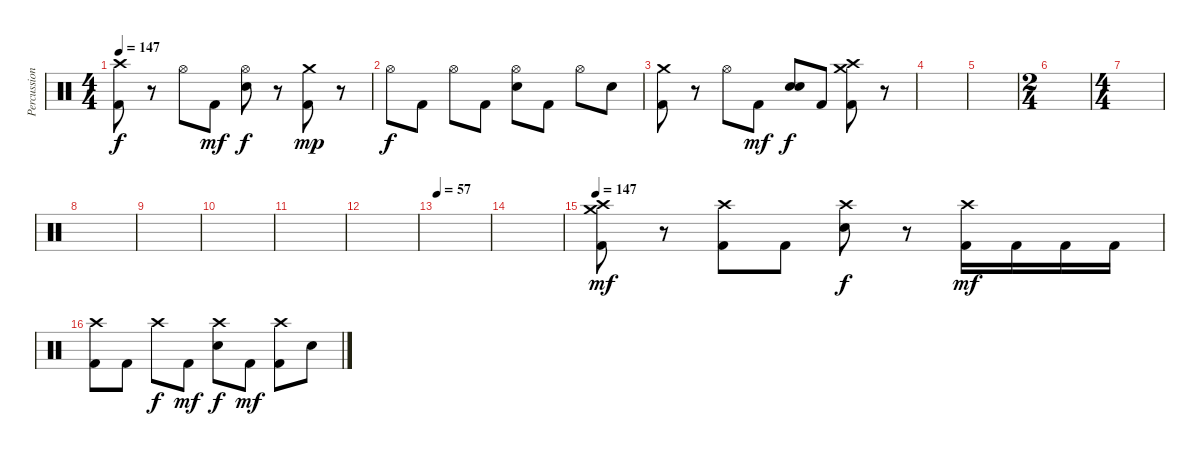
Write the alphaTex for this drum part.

\track ("Percussion" "Percussion") {instrument percussion}
\staff {score}
\articulation defaults
\ts (4 4)
\tempo 147
\clef neutral
\ks c
("Kick (hit) 2" "Crash high (hit)").8{dy f} r.8 "Hi-Hat (open)".8 "Kick (hit) 2".8{dy mf} ("Electric Snare (hit)" "Hi-Hat (open)").8{dy f} r.8 ("Kick (hit) 2" "Crash medium (hit)").8{dy mp} r.8 |
"Hi-Hat (open)".8{dy f} "Kick (hit) 2".8 "Hi-Hat (open)".8 "Kick (hit) 2".8 ("Electric Snare (hit)" "Hi-Hat (open)").8 "Kick (hit) 2".8 "Hi-Hat (open)".8 "Electric Snare (hit)".8 |
("Kick (hit) 2" "Crash medium (hit)").8 r.8 "Hi-Hat (open)".8 "Kick (hit) 2".8{dy mf} ("Electric Snare (hit)" "Electric Snare (hit)").8{dy f} "Kick (hit) 2".8 ("Kick (hit) 2" "Crash medium (hit)" "Crash high (hit)").8 r.8 |
|
|
\ts (2 4)
|
\ts (4 4)
|
|
|
|
|
|
\tempo 57
|
|
\tempo 147
("Kick (hit) 2" "Crash medium (hit)" "Crash high (hit)").8{dy mf} r.8 ("Kick (hit) 2" "Crash high (hit)").8 "Kick (hit) 2".8 ("Electric Snare (hit)" "Crash high (hit)").8{dy f} r.8 ("Kick (hit) 2" "Crash high (hit)").16{dy mf} "Kick (hit) 2".16 "Kick (hit) 2".16 "Kick (hit) 2".16 |
("Kick (hit) 2" "Crash high (hit)").8 "Kick (hit) 2".8 "Crash high (hit)".8{dy f} "Kick (hit) 2".8{dy mf} ("Electric Snare (hit)" "Crash high (hit)").8{dy f} "Kick (hit) 2".8{dy mf} ("Kick (hit) 2" "Crash high (hit)").8 "Electric Snare (hit)".8
